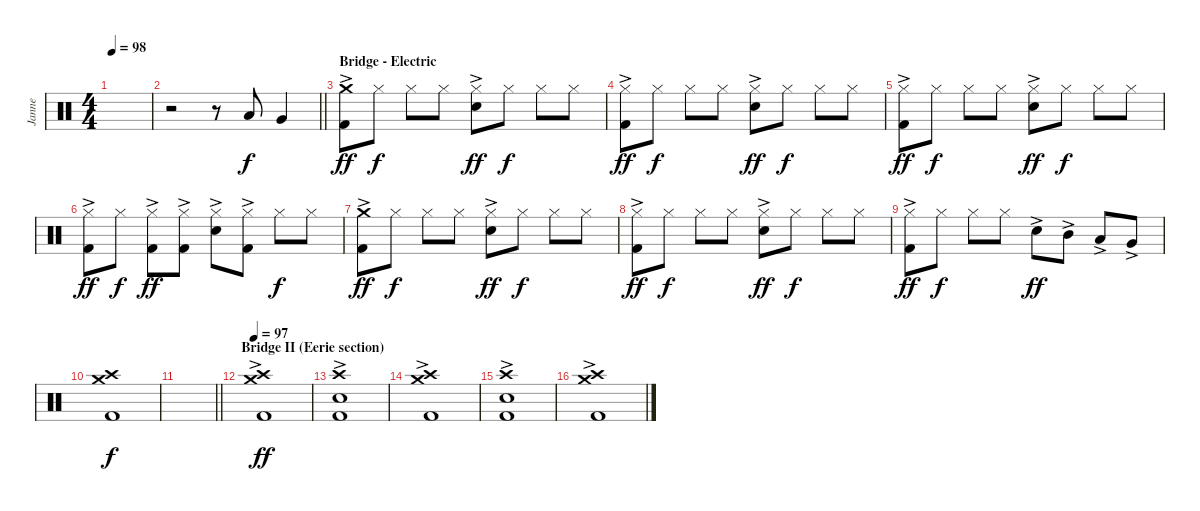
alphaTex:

\track ("Janne" "Janne") {instrument percussion}
\staff {score}
\articulation defaults
\ts (4 4)
\tempo 98
\clef neutral
\ks c
|
\barLineRight lightlight
r.2 r.8 "Low Tom (hit)".8 "Very Low Tom (hit)".4 |
\section ("" "Bridge - Electric")
("Kick (hit) 2"{ac} "Crash medium (hit)").8{dy ff} "Hi-Hat (closed)".8{dy f} "Hi-Hat (closed)".8 "Hi-Hat (closed)".8 ("Snare (hit) 2"{ac} "Hi-Hat (closed)").8{dy ff} "Hi-Hat (closed)".8{dy f} "Hi-Hat (closed)".8 "Hi-Hat (closed)".8 |
("Kick (hit) 2"{ac} "Hi-Hat (closed)").8{dy ff} "Hi-Hat (closed)".8{dy f} "Hi-Hat (closed)".8 "Hi-Hat (closed)".8 ("Snare (hit) 2"{ac} "Hi-Hat (closed)").8{dy ff} "Hi-Hat (closed)".8{dy f} "Hi-Hat (closed)".8 "Hi-Hat (closed)".8 |
("Kick (hit) 2"{ac} "Hi-Hat (closed)").8{dy ff} "Hi-Hat (closed)".8{dy f} "Hi-Hat (closed)".8 "Hi-Hat (closed)".8 ("Snare (hit) 2"{ac} "Hi-Hat (closed)").8{dy ff} "Hi-Hat (closed)".8{dy f} "Hi-Hat (closed)".8 "Hi-Hat (closed)".8 |
("Kick (hit) 2"{ac} "Hi-Hat (closed)").8{dy ff} "Hi-Hat (closed)".8{dy f} ("Kick (hit) 2"{ac} "Hi-Hat (closed)").8{dy ff} ("Kick (hit) 2"{ac} "Hi-Hat (closed)").8 ("Snare (hit) 2"{ac} "Hi-Hat (closed)").8 ("Kick (hit) 2"{ac} "Hi-Hat (closed)").8 "Hi-Hat (closed)".8{dy f} "Hi-Hat (closed)".8 |
("Kick (hit) 2"{ac} "Crash medium (hit)").8{dy ff} "Hi-Hat (closed)".8{dy f} "Hi-Hat (closed)".8 "Hi-Hat (closed)".8 ("Snare (hit) 2"{ac} "Hi-Hat (closed)").8{dy ff} "Hi-Hat (closed)".8{dy f} "Hi-Hat (closed)".8 "Hi-Hat (closed)".8 |
("Kick (hit) 2"{ac} "Hi-Hat (closed)").8{dy ff} "Hi-Hat (closed)".8{dy f} "Hi-Hat (closed)".8 "Hi-Hat (closed)".8 ("Snare (hit) 2"{ac} "Hi-Hat (closed)").8{dy ff} "Hi-Hat (closed)".8{dy f} "Hi-Hat (closed)".8 "Hi-Hat (closed)".8 |
("Kick (hit) 2"{ac} "Hi-Hat (closed)").8{dy ff} "Hi-Hat (closed)".8{dy f} "Hi-Hat (closed)".8 "Hi-Hat (closed)".8 "Snare (hit) 2"{ac}.8{dy ff} "Mid Tom (hit)"{ac}.8 "Low Tom (hit)"{ac}.8 "Very Low Tom (hit)"{ac}.8 |
("Kick (hit) 2" "Crash medium (hit)" "Crash high (hit)").1{dy f} |
\barLineRight lightlight
|
\section ("" "Bridge II (Eerie section)")
\tempo 97
("Kick (hit) 2"{ac} "Crash medium (hit)" "Crash high (hit)").1{dy ff} |
("Kick (hit) 2"{ac} "Snare (hit) 2"{ac} "Crash high (hit)").1 |
("Kick (hit) 2"{ac} "Crash medium (hit)" "Crash high (hit)").1 |
("Kick (hit) 2"{ac} "Snare (hit) 2"{ac} "Crash high (hit)").1 |
("Kick (hit) 2"{ac} "Crash medium (hit)" "Crash high (hit)").1
